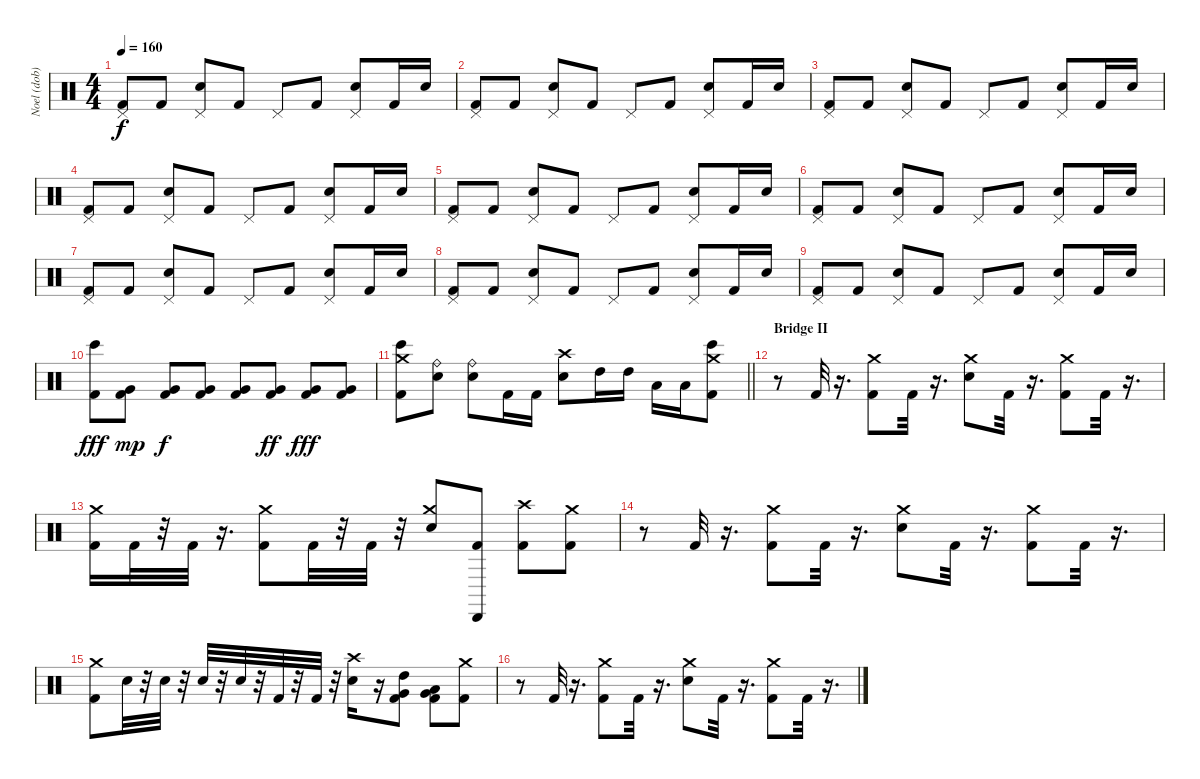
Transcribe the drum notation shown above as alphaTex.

\track ("Noel (dob)" "Noel (dob)") {instrument percussion}
\staff {score}
\articulation defaults
\ts (4 4)
\tempo 160
\clef neutral
\ks c
("Kick (hit) 2" "Pedal Hi-Hat (hit)").8{dy f} "Kick (hit) 2".8 ("Electric Snare (hit)" "Pedal Hi-Hat (hit)").8 "Kick (hit) 2".8 "Pedal Hi-Hat (hit)".8 "Kick (hit) 2".8 ("Electric Snare (hit)" "Pedal Hi-Hat (hit)").8 "Kick (hit) 2".16 "Electric Snare (hit)".16 |
("Kick (hit) 2" "Pedal Hi-Hat (hit)").8 "Kick (hit) 2".8 ("Electric Snare (hit)" "Pedal Hi-Hat (hit)").8 "Kick (hit) 2".8 "Pedal Hi-Hat (hit)".8 "Kick (hit) 2".8 ("Electric Snare (hit)" "Pedal Hi-Hat (hit)").8 "Kick (hit) 2".16 "Electric Snare (hit)".16 |
("Kick (hit) 2" "Pedal Hi-Hat (hit)").8 "Kick (hit) 2".8 ("Electric Snare (hit)" "Pedal Hi-Hat (hit)").8 "Kick (hit) 2".8 "Pedal Hi-Hat (hit)".8 "Kick (hit) 2".8 ("Electric Snare (hit)" "Pedal Hi-Hat (hit)").8 "Kick (hit) 2".16 "Electric Snare (hit)".16 |
("Kick (hit) 2" "Pedal Hi-Hat (hit)").8 "Kick (hit) 2".8 ("Electric Snare (hit)" "Pedal Hi-Hat (hit)").8 "Kick (hit) 2".8 "Pedal Hi-Hat (hit)".8 "Kick (hit) 2".8 ("Electric Snare (hit)" "Pedal Hi-Hat (hit)").8 "Kick (hit) 2".16 "Electric Snare (hit)".16 |
("Kick (hit) 2" "Pedal Hi-Hat (hit)").8 "Kick (hit) 2".8 ("Electric Snare (hit)" "Pedal Hi-Hat (hit)").8 "Kick (hit) 2".8 "Pedal Hi-Hat (hit)".8 "Kick (hit) 2".8 ("Electric Snare (hit)" "Pedal Hi-Hat (hit)").8 "Kick (hit) 2".16 "Electric Snare (hit)".16 |
("Kick (hit) 2" "Pedal Hi-Hat (hit)").8 "Kick (hit) 2".8 ("Electric Snare (hit)" "Pedal Hi-Hat (hit)").8 "Kick (hit) 2".8 "Pedal Hi-Hat (hit)".8 "Kick (hit) 2".8 ("Electric Snare (hit)" "Pedal Hi-Hat (hit)").8 "Kick (hit) 2".16 "Electric Snare (hit)".16 |
("Kick (hit) 2" "Pedal Hi-Hat (hit)").8 "Kick (hit) 2".8 ("Electric Snare (hit)" "Pedal Hi-Hat (hit)").8 "Kick (hit) 2".8 "Pedal Hi-Hat (hit)".8 "Kick (hit) 2".8 ("Electric Snare (hit)" "Pedal Hi-Hat (hit)").8 "Kick (hit) 2".16 "Electric Snare (hit)".16 |
("Kick (hit) 2" "Pedal Hi-Hat (hit)").8 "Kick (hit) 2".8 ("Electric Snare (hit)" "Pedal Hi-Hat (hit)").8 "Kick (hit) 2".8 "Pedal Hi-Hat (hit)".8 "Kick (hit) 2".8 ("Electric Snare (hit)" "Pedal Hi-Hat (hit)").8 "Kick (hit) 2".16 "Electric Snare (hit)".16 |
("Kick (hit) 2" "Pedal Hi-Hat (hit)").8 "Kick (hit) 2".8 ("Electric Snare (hit)" "Pedal Hi-Hat (hit)").8 "Kick (hit) 2".8 "Pedal Hi-Hat (hit)".8 "Kick (hit) 2".8 ("Electric Snare (hit)" "Pedal Hi-Hat (hit)").8 "Kick (hit) 2".16 "Electric Snare (hit)".16 |
("Bongo High (hit)" "Kick (hit) 2").8{dy fff} ("Kick (hit) 2" "Very Low Tom (hit)").8{dy mp} ("Kick (hit) 2" "Very Low Tom (hit)").8{dy f} ("Kick (hit) 2" "Very Low Tom (hit)").8 ("Kick (hit) 2" "Very Low Tom (hit)").8 ("Kick (hit) 2" "Very Low Tom (hit)").8{dy ff} ("Kick (hit) 2" "Very Low Tom (hit)").8{dy fff} ("Kick (hit) 2" "Very Low Tom (hit)").8 |
\barLineRight lightlight
("Kick (hit) 2" "Bongo High (hit)" "Crash medium (hit)").8 ("Ride (bell)" "Snare (hit) 2").8 ("Ride (bell)" "Snare (hit) 2").8 "Kick (hit) 2".16 "Kick (hit) 2".16 ("Snare (hit) 2" "Crash high (hit)").8 "High Tom (hit)".16 "High Tom (hit)".16 "Low Tom (hit)".16 "Low Tom (hit)".16 ("Crash medium (hit)" "Kick (hit) 2" "Bongo High (hit)").8 |
\section ("" "Bridge II")
r.8 "Kick (hit) 2".32 r.16{d} ("Kick (hit) 2" "Crash medium (hit)").8 "Kick (hit) 2".32 r.16{d} ("Snare (hit) 2" "Crash medium (hit)").8 "Kick (hit) 2".32 r.16{d} ("Kick (hit) 2" "Crash medium (hit)").8 "Kick (hit) 2".32 r.16{d} |
("Crash medium (hit)" "Kick (hit) 2").16 "Kick (hit) 2".32 r.32 "Kick (hit) 2".32 r.16{d} ("Kick (hit) 2" "Crash medium (hit)").8 "Kick (hit) 2".32 r.32 "Kick (hit) 2".32 r.32 ("Crash medium (hit)" "Snare (hit) 2").8 ("Kick (hit) 2" "Cabasa (hit)").8 ("Kick (hit) 2" "Crash high (hit)").8 ("Crash medium (hit)" "Kick (hit) 2").8 |
r.8 "Kick (hit) 2".32 r.16{d} ("Kick (hit) 2" "Crash medium (hit)").8 "Kick (hit) 2".32 r.16{d} ("Snare (hit) 2" "Crash medium (hit)").8 "Kick (hit) 2".32 r.16{d} ("Kick (hit) 2" "Crash medium (hit)").8 "Kick (hit) 2".32 r.16{d} |
("Crash medium (hit)" "Kick (hit) 2").8 "Snare (hit) 2".32 r.32 "Snare (hit) 2".32 r.32 "Snare (hit) 2".32 r.32 "Snare (hit) 2".32 r.32 "Kick (hit) 2".32 r.32 "Kick (hit) 2".32 r.32 ("Snare (hit) 2" "Crash high (hit)").16 r.16 ("Kick (hit) 2" "High Tom (hit)" "Very Low Tom (hit)").8 ("Low Tom (hit)" "Kick (hit) 2" "Very Low Tom (hit)").8 ("Kick (hit) 2" "Crash medium (hit)").8 |
r.8 "Kick (hit) 2".32 r.16{d} ("Kick (hit) 2" "Crash medium (hit)").8 "Kick (hit) 2".32 r.16{d} ("Snare (hit) 2" "Crash medium (hit)").8 "Kick (hit) 2".32 r.16{d} ("Kick (hit) 2" "Crash medium (hit)").8 "Kick (hit) 2".32 r.16{d}
